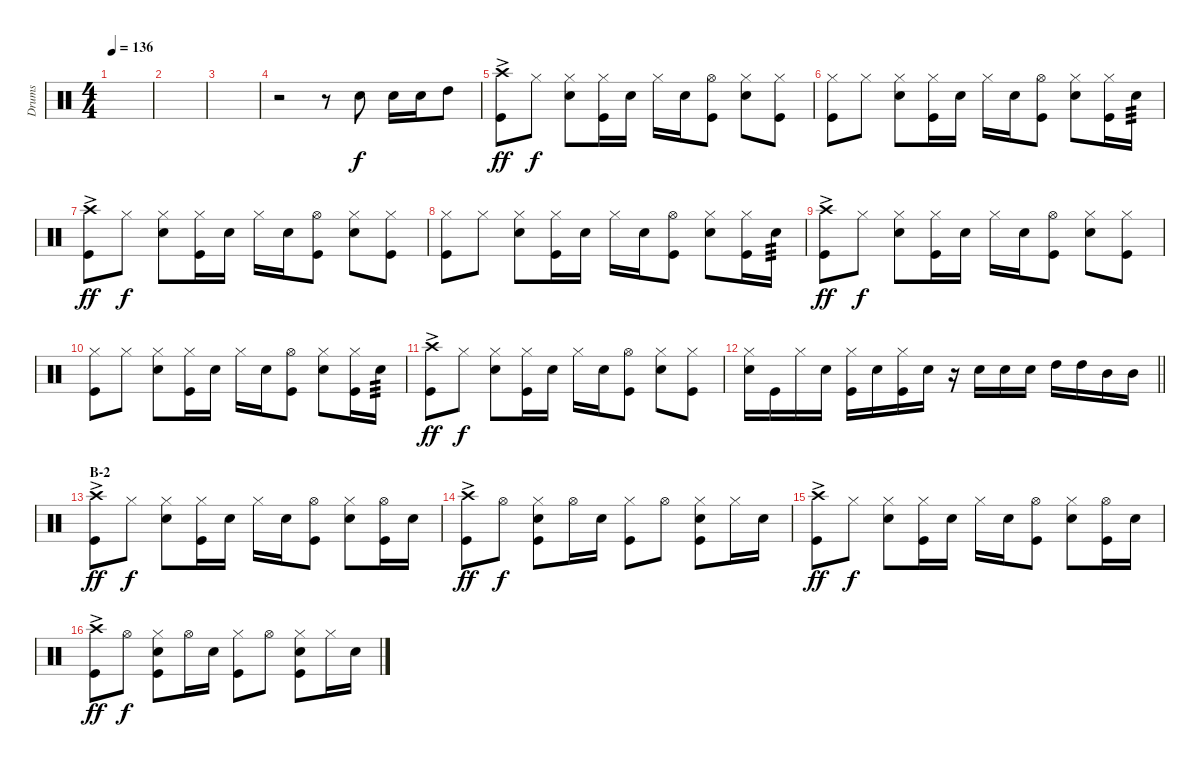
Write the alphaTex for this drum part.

\track ("Drums" "Drums") {instrument percussion}
\staff {score}
\articulation defaults
\ts (4 4)
\tempo 136
\clef neutral
\ks c
|
|
|
r.2 r.8 "Snare (hit) 2".8 "Snare (hit) 2".16 "Snare (hit) 2".16 "High Tom (hit)".8 |
("Crash high (hit)"{ac} "Kick (hit)").8{dy ff} "Hi-Hat (closed)".8{dy f} ("Hi-Hat (closed)" "Snare (hit) 2").8 ("Hi-Hat (closed)" "Kick (hit)").16 "Snare (hit) 2".16 "Hi-Hat (closed)".16 "Snare (hit) 2".16 ("Hi-Hat (open)" "Kick (hit)").8 ("Hi-Hat (closed)" "Snare (hit) 2").8 ("Hi-Hat (closed)" "Kick (hit)").8 |
("Hi-Hat (closed)" "Kick (hit)").8 "Hi-Hat (closed)".8 ("Hi-Hat (closed)" "Snare (hit) 2").8 ("Hi-Hat (closed)" "Kick (hit)").16 "Snare (hit) 2".16 "Hi-Hat (closed)".16 "Snare (hit) 2".16 ("Hi-Hat (open)" "Kick (hit)").8 ("Hi-Hat (closed)" "Snare (hit) 2").8 ("Hi-Hat (closed)" "Kick (hit)").16 "Snare (hit) 2".16{tp 3} |
("Crash high (hit)"{ac} "Kick (hit)").8{dy ff} "Hi-Hat (closed)".8{dy f} ("Hi-Hat (closed)" "Snare (hit) 2").8 ("Hi-Hat (closed)" "Kick (hit)").16 "Snare (hit) 2".16 "Hi-Hat (closed)".16 "Snare (hit) 2".16 ("Hi-Hat (open)" "Kick (hit)").8 ("Hi-Hat (closed)" "Snare (hit) 2").8 ("Hi-Hat (closed)" "Kick (hit)").8 |
("Hi-Hat (closed)" "Kick (hit)").8 "Hi-Hat (closed)".8 ("Hi-Hat (closed)" "Snare (hit) 2").8 ("Hi-Hat (closed)" "Kick (hit)").16 "Snare (hit) 2".16 "Hi-Hat (closed)".16 "Snare (hit) 2".16 ("Hi-Hat (open)" "Kick (hit)").8 ("Hi-Hat (closed)" "Snare (hit) 2").8 ("Hi-Hat (closed)" "Kick (hit)").16 "Snare (hit) 2".16{tp 3} |
("Crash high (hit)"{ac} "Kick (hit)").8{dy ff} "Hi-Hat (closed)".8{dy f} ("Hi-Hat (closed)" "Snare (hit) 2").8 ("Hi-Hat (closed)" "Kick (hit)").16 "Snare (hit) 2".16 "Hi-Hat (closed)".16 "Snare (hit) 2".16 ("Hi-Hat (open)" "Kick (hit)").8 ("Hi-Hat (closed)" "Snare (hit) 2").8 ("Hi-Hat (closed)" "Kick (hit)").8 |
("Hi-Hat (closed)" "Kick (hit)").8 "Hi-Hat (closed)".8 ("Hi-Hat (closed)" "Snare (hit) 2").8 ("Hi-Hat (closed)" "Kick (hit)").16 "Snare (hit) 2".16 "Hi-Hat (closed)".16 "Snare (hit) 2".16 ("Hi-Hat (open)" "Kick (hit)").8 ("Hi-Hat (closed)" "Snare (hit) 2").8 ("Hi-Hat (closed)" "Kick (hit)").16 "Snare (hit) 2".16{tp 3} |
("Crash high (hit)"{ac} "Kick (hit)").8{dy ff} "Hi-Hat (closed)".8{dy f} ("Hi-Hat (closed)" "Snare (hit) 2").8 ("Hi-Hat (closed)" "Kick (hit)").16 "Snare (hit) 2".16 "Hi-Hat (closed)".16 "Snare (hit) 2".16 ("Hi-Hat (open)" "Kick (hit)").8 ("Hi-Hat (closed)" "Snare (hit) 2").8 ("Hi-Hat (closed)" "Kick (hit)").8 |
\barLineRight lightlight
("Hi-Hat (closed)" "Snare (hit) 2").16 "Kick (hit)".16 "Hi-Hat (closed)".16 "Snare (hit) 2".16 ("Hi-Hat (closed)" "Kick (hit)").16 "Snare (hit) 2".16 ("Hi-Hat (closed)" "Kick (hit)").16 "Snare (hit) 2".16 r.16 "Snare (hit) 2".16 "Snare (hit) 2".16 "Snare (hit) 2".16 "High Tom (hit)".16 "High Tom (hit)".16 "Mid Tom (hit)".16 "Mid Tom (hit)".16 |
\section ("" "B-2")
("Crash high (hit)"{ac} "Kick (hit)").8{dy ff} "Hi-Hat (closed)".8{dy f} ("Hi-Hat (closed)" "Snare (hit) 2").8 ("Hi-Hat (closed)" "Kick (hit)").16 "Snare (hit) 2".16 "Hi-Hat (closed)".16 "Snare (hit) 2".16 ("Hi-Hat (open)" "Kick (hit)").8 ("Hi-Hat (closed)" "Snare (hit) 2").8 ("Hi-Hat (open)" "Kick (hit)").16 "Snare (hit) 2".16 |
("Crash high (hit)"{ac} "Kick (hit)").8{dy ff} "Hi-Hat (open)".8{dy f} ("Hi-Hat (closed)" "Snare (hit) 2" "Kick (hit)").8 "Hi-Hat (open)".16 "Snare (hit) 2".16 ("Hi-Hat (closed)" "Kick (hit)").8 "Hi-Hat (open)".8 ("Hi-Hat (closed)" "Snare (hit) 2" "Kick (hit)").8 "Hi-Hat (closed)".16 "Snare (hit) 2".16 |
("Crash high (hit)"{ac} "Kick (hit)").8{dy ff} "Hi-Hat (closed)".8{dy f} ("Hi-Hat (closed)" "Snare (hit) 2").8 ("Hi-Hat (closed)" "Kick (hit)").16 "Snare (hit) 2".16 "Hi-Hat (closed)".16 "Snare (hit) 2".16 ("Hi-Hat (open)" "Kick (hit)").8 ("Hi-Hat (closed)" "Snare (hit) 2").8 ("Hi-Hat (open)" "Kick (hit)").16 "Snare (hit) 2".16 |
("Crash high (hit)"{ac} "Kick (hit)").8{dy ff} "Hi-Hat (open)".8{dy f} ("Hi-Hat (closed)" "Snare (hit) 2" "Kick (hit)").8 "Hi-Hat (open)".16 "Snare (hit) 2".16 ("Hi-Hat (closed)" "Kick (hit)").8 "Hi-Hat (open)".8 ("Hi-Hat (closed)" "Snare (hit) 2" "Kick (hit)").8 "Hi-Hat (closed)".16 "Snare (hit) 2".16
